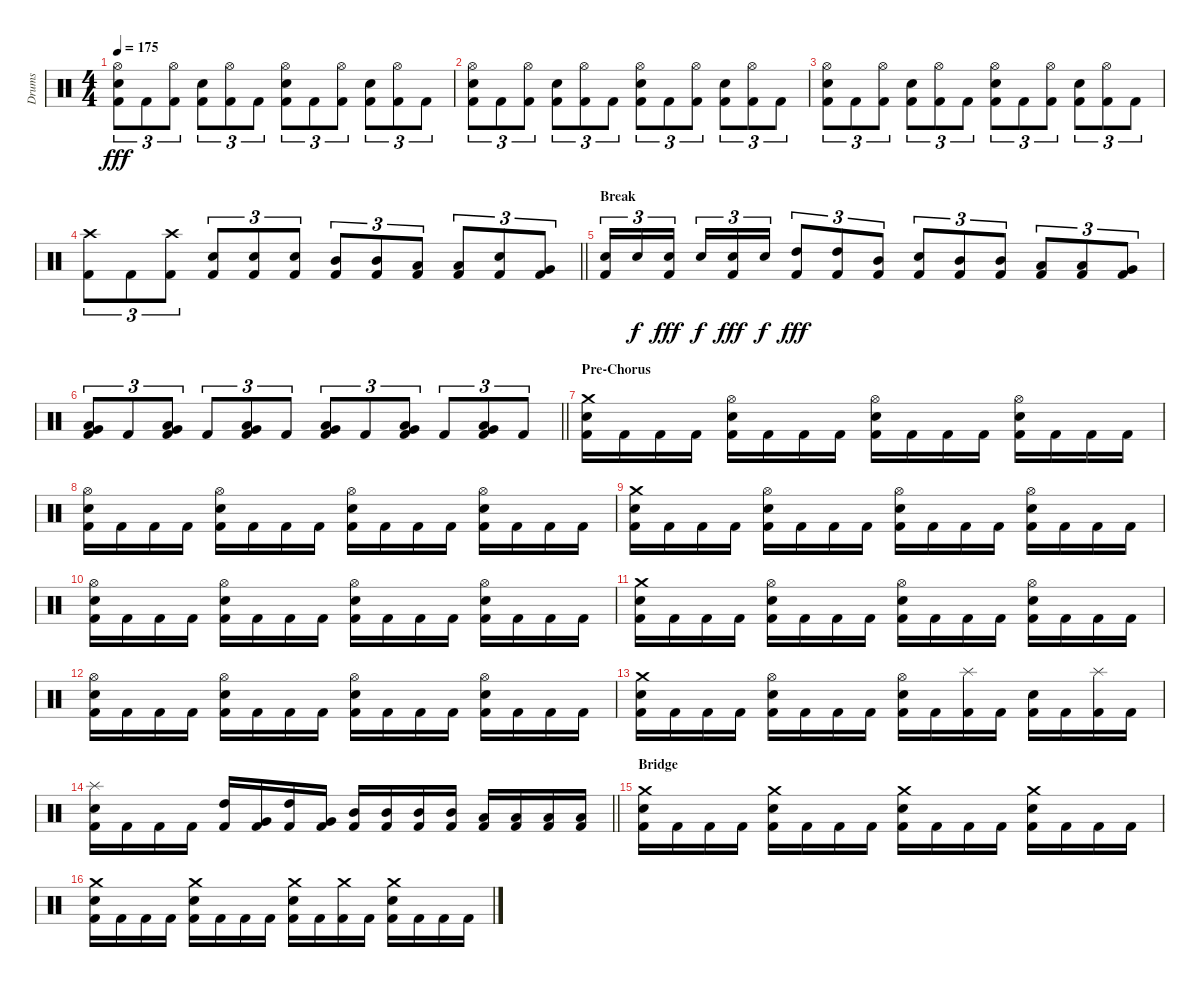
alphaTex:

\track ("Drums" "Drums") {instrument percussion}
\staff {score}
\articulation defaults
\ts (4 4)
\tempo 175
\clef neutral
\ks c
("Hi-Hat (open)" "Electric Snare (hit)" "Kick (hit) 2").8{tu (3 2) dy fff} "Kick (hit) 2".8{tu (3 2)} ("Hi-Hat (open)" "Kick (hit) 2").8{tu (3 2)} ("Electric Snare (hit)" "Kick (hit) 2").8{tu (3 2)} ("Hi-Hat (open)" "Kick (hit) 2").8{tu (3 2)} "Kick (hit) 2".8{tu (3 2)} ("Hi-Hat (open)" "Electric Snare (hit)" "Kick (hit) 2").8{tu (3 2)} "Kick (hit) 2".8{tu (3 2)} ("Hi-Hat (open)" "Kick (hit) 2").8{tu (3 2)} ("Electric Snare (hit)" "Kick (hit) 2").8{tu (3 2)} ("Hi-Hat (open)" "Kick (hit) 2").8{tu (3 2)} "Kick (hit) 2".8{tu (3 2)} |
("Hi-Hat (open)" "Electric Snare (hit)" "Kick (hit) 2").8{tu (3 2)} "Kick (hit) 2".8{tu (3 2)} ("Hi-Hat (open)" "Kick (hit) 2").8{tu (3 2)} ("Electric Snare (hit)" "Kick (hit) 2").8{tu (3 2)} ("Hi-Hat (open)" "Kick (hit) 2").8{tu (3 2)} "Kick (hit) 2".8{tu (3 2)} ("Hi-Hat (open)" "Electric Snare (hit)" "Kick (hit) 2").8{tu (3 2)} "Kick (hit) 2".8{tu (3 2)} ("Hi-Hat (open)" "Kick (hit) 2").8{tu (3 2)} ("Electric Snare (hit)" "Kick (hit) 2").8{tu (3 2)} ("Hi-Hat (open)" "Kick (hit) 2").8{tu (3 2)} "Kick (hit) 2".8{tu (3 2)} |
("Hi-Hat (open)" "Electric Snare (hit)" "Kick (hit) 2").8{tu (3 2)} "Kick (hit) 2".8{tu (3 2)} ("Hi-Hat (open)" "Kick (hit) 2").8{tu (3 2)} ("Electric Snare (hit)" "Kick (hit) 2").8{tu (3 2)} ("Hi-Hat (open)" "Kick (hit) 2").8{tu (3 2)} "Kick (hit) 2".8{tu (3 2)} ("Hi-Hat (open)" "Electric Snare (hit)" "Kick (hit) 2").8{tu (3 2)} "Kick (hit) 2".8{tu (3 2)} ("Hi-Hat (open)" "Kick (hit) 2").8{tu (3 2)} ("Electric Snare (hit)" "Kick (hit) 2").8{tu (3 2)} ("Hi-Hat (open)" "Kick (hit) 2").8{tu (3 2)} "Kick (hit) 2".8{tu (3 2)} |
\barLineRight lightlight
("Crash high (hit)" "Kick (hit) 2").8{tu (3 2)} "Kick (hit) 2".8{tu (3 2)} ("Crash high (hit)" "Kick (hit) 2").8{tu (3 2)} ("Electric Snare (hit)" "Kick (hit) 2").8{tu (3 2)} ("Electric Snare (hit)" "Kick (hit) 2").8{tu (3 2)} ("Electric Snare (hit)" "Kick (hit) 2").8{tu (3 2)} ("Mid Tom (hit)" "Kick (hit) 2").8{tu (3 2)} ("Mid Tom (hit)" "Kick (hit) 2").8{tu (3 2)} ("Low Tom (hit)" "Kick (hit) 2").8{tu (3 2)} ("Low Tom (hit)" "Kick (hit) 2").8{tu (3 2)} ("Electric Snare (hit)" "Kick (hit) 2").8{tu (3 2)} ("Very Low Tom (hit)" "Kick (hit) 2").8{tu (3 2)} |
\section ("" "Break")
("Electric Snare (hit)" "Kick (hit) 2").16{tu (3 2)} "Electric Snare (hit)".16{tu (3 2) dy f} ("Electric Snare (hit)" "Kick (hit) 2").16{tu (3 2) dy fff beam splitsecondary} "Electric Snare (hit)".16{tu (3 2) dy f} ("Electric Snare (hit)" "Kick (hit) 2").16{tu (3 2) dy fff} "Electric Snare (hit)".16{tu (3 2) dy f} ("High Tom (hit)" "Kick (hit) 2").8{tu (3 2) dy fff} ("High Tom (hit)" "Kick (hit) 2").8{tu (3 2)} ("Mid Tom (hit)" "Kick (hit) 2").8{tu (3 2)} ("Electric Snare (hit)" "Kick (hit) 2").8{tu (3 2)} ("Mid Tom (hit)" "Kick (hit) 2").8{tu (3 2)} ("Mid Tom (hit)" "Kick (hit) 2").8{tu (3 2)} ("Low Tom (hit)" "Kick (hit) 2").8{tu (3 2)} ("Low Tom (hit)" "Kick (hit) 2").8{tu (3 2)} ("Very Low Tom (hit)" "Kick (hit) 2").8{tu (3 2)} |
\barLineRight lightlight
("Very Low Tom (hit)" "Low Floor Tom (hit)" "Kick (hit) 2").8{tu (3 2)} "Kick (hit) 2".8{tu (3 2)} ("Very Low Tom (hit)" "Low Floor Tom (hit)" "Kick (hit) 2").8{tu (3 2)} "Kick (hit) 2".8{tu (3 2)} ("Very Low Tom (hit)" "Low Floor Tom (hit)" "Kick (hit) 2").8{tu (3 2)} "Kick (hit) 2".8{tu (3 2)} ("Very Low Tom (hit)" "Low Floor Tom (hit)" "Kick (hit) 2").8{tu (3 2)} "Kick (hit) 2".8{tu (3 2)} ("Very Low Tom (hit)" "Low Floor Tom (hit)" "Kick (hit) 2").8{tu (3 2)} "Kick (hit) 2".8{tu (3 2)} ("Very Low Tom (hit)" "Low Floor Tom (hit)" "Kick (hit) 2").8{tu (3 2)} "Kick (hit) 2".8{tu (3 2)} |
\section ("" "Pre-Chorus")
("Crash medium (hit)" "Electric Snare (hit)" "Kick (hit) 2").16 "Kick (hit) 2".16 "Kick (hit) 2".16 "Kick (hit) 2".16 ("Hi-Hat (open)" "Electric Snare (hit)" "Kick (hit) 2").16 "Kick (hit) 2".16 "Kick (hit) 2".16 "Kick (hit) 2".16 ("Hi-Hat (open)" "Electric Snare (hit)" "Kick (hit) 2").16 "Kick (hit) 2".16 "Kick (hit) 2".16 "Kick (hit) 2".16 ("Hi-Hat (open)" "Electric Snare (hit)" "Kick (hit) 2").16 "Kick (hit) 2".16 "Kick (hit) 2".16 "Kick (hit) 2".16 |
("Hi-Hat (open)" "Electric Snare (hit)" "Kick (hit) 2").16 "Kick (hit) 2".16 "Kick (hit) 2".16 "Kick (hit) 2".16 ("Hi-Hat (open)" "Electric Snare (hit)" "Kick (hit) 2").16 "Kick (hit) 2".16 "Kick (hit) 2".16 "Kick (hit) 2".16 ("Hi-Hat (open)" "Electric Snare (hit)" "Kick (hit) 2").16 "Kick (hit) 2".16 "Kick (hit) 2".16 "Kick (hit) 2".16 ("Hi-Hat (open)" "Electric Snare (hit)" "Kick (hit) 2").16 "Kick (hit) 2".16 "Kick (hit) 2".16 "Kick (hit) 2".16 |
("Crash medium (hit)" "Electric Snare (hit)" "Kick (hit) 2").16 "Kick (hit) 2".16 "Kick (hit) 2".16 "Kick (hit) 2".16 ("Hi-Hat (open)" "Electric Snare (hit)" "Kick (hit) 2").16 "Kick (hit) 2".16 "Kick (hit) 2".16 "Kick (hit) 2".16 ("Hi-Hat (open)" "Electric Snare (hit)" "Kick (hit) 2").16 "Kick (hit) 2".16 "Kick (hit) 2".16 "Kick (hit) 2".16 ("Hi-Hat (open)" "Electric Snare (hit)" "Kick (hit) 2").16 "Kick (hit) 2".16 "Kick (hit) 2".16 "Kick (hit) 2".16 |
("Hi-Hat (open)" "Electric Snare (hit)" "Kick (hit) 2").16 "Kick (hit) 2".16 "Kick (hit) 2".16 "Kick (hit) 2".16 ("Hi-Hat (open)" "Electric Snare (hit)" "Kick (hit) 2").16 "Kick (hit) 2".16 "Kick (hit) 2".16 "Kick (hit) 2".16 ("Hi-Hat (open)" "Electric Snare (hit)" "Kick (hit) 2").16 "Kick (hit) 2".16 "Kick (hit) 2".16 "Kick (hit) 2".16 ("Hi-Hat (open)" "Electric Snare (hit)" "Kick (hit) 2").16 "Kick (hit) 2".16 "Kick (hit) 2".16 "Kick (hit) 2".16 |
("Crash medium (hit)" "Electric Snare (hit)" "Kick (hit) 2").16 "Kick (hit) 2".16 "Kick (hit) 2".16 "Kick (hit) 2".16 ("Hi-Hat (open)" "Electric Snare (hit)" "Kick (hit) 2").16 "Kick (hit) 2".16 "Kick (hit) 2".16 "Kick (hit) 2".16 ("Hi-Hat (open)" "Electric Snare (hit)" "Kick (hit) 2").16 "Kick (hit) 2".16 "Kick (hit) 2".16 "Kick (hit) 2".16 ("Hi-Hat (open)" "Electric Snare (hit)" "Kick (hit) 2").16 "Kick (hit) 2".16 "Kick (hit) 2".16 "Kick (hit) 2".16 |
("Hi-Hat (open)" "Electric Snare (hit)" "Kick (hit) 2").16 "Kick (hit) 2".16 "Kick (hit) 2".16 "Kick (hit) 2".16 ("Hi-Hat (open)" "Electric Snare (hit)" "Kick (hit) 2").16 "Kick (hit) 2".16 "Kick (hit) 2".16 "Kick (hit) 2".16 ("Hi-Hat (open)" "Electric Snare (hit)" "Kick (hit) 2").16 "Kick (hit) 2".16 "Kick (hit) 2".16 "Kick (hit) 2".16 ("Hi-Hat (open)" "Electric Snare (hit)" "Kick (hit) 2").16 "Kick (hit) 2".16 "Kick (hit) 2".16 "Kick (hit) 2".16 |
("Crash medium (hit)" "Electric Snare (hit)" "Kick (hit) 2").16 "Kick (hit) 2".16 "Kick (hit) 2".16 "Kick (hit) 2".16 ("Hi-Hat (open)" "Electric Snare (hit)" "Kick (hit) 2").16 "Kick (hit) 2".16 "Kick (hit) 2".16 "Kick (hit) 2".16 ("Hi-Hat (open)" "Electric Snare (hit)" "Kick (hit) 2").16 "Kick (hit) 2".16 ("Splash (hit)" "Kick (hit) 2").16 "Kick (hit) 2".16 ("Electric Snare (hit)" "Kick (hit) 2").16 "Kick (hit) 2".16 ("Splash (hit)" "Kick (hit) 2").16 "Kick (hit) 2".16 |
\barLineRight lightlight
("Splash (hit)" "Electric Snare (hit)" "Kick (hit) 2").16 "Kick (hit) 2".16 "Kick (hit) 2".16 "Kick (hit) 2".16 ("High Tom (hit)" "Kick (hit) 2").16 ("Very Low Tom (hit)" "Kick (hit) 2").16 ("High Tom (hit)" "Kick (hit) 2").16 ("Very Low Tom (hit)" "Kick (hit) 2").16 ("Mid Tom (hit)" "Kick (hit) 2").16 ("Mid Tom (hit)" "Kick (hit) 2").16 ("Mid Tom (hit)" "Kick (hit) 2").16 ("Mid Tom (hit)" "Kick (hit) 2").16 ("Low Tom (hit)" "Kick (hit) 2").16 ("Low Tom (hit)" "Kick (hit) 2").16 ("Low Tom (hit)" "Kick (hit) 2").16 ("Low Tom (hit)" "Kick (hit) 2").16 |
\section ("" "Bridge")
("Crash medium (hit)" "Electric Snare (hit)" "Kick (hit) 2").16 "Kick (hit) 2".16 "Kick (hit) 2".16 "Kick (hit) 2".16 ("Crash medium (hit)" "Electric Snare (hit)" "Kick (hit) 2").16 "Kick (hit) 2".16 "Kick (hit) 2".16 "Kick (hit) 2".16 ("Crash medium (hit)" "Electric Snare (hit)" "Kick (hit) 2").16 "Kick (hit) 2".16 "Kick (hit) 2".16 "Kick (hit) 2".16 ("Crash medium (hit)" "Electric Snare (hit)" "Kick (hit) 2").16 "Kick (hit) 2".16 "Kick (hit) 2".16 "Kick (hit) 2".16 |
("Crash medium (hit)" "Electric Snare (hit)" "Kick (hit) 2").16 "Kick (hit) 2".16 "Kick (hit) 2".16 "Kick (hit) 2".16 ("Crash medium (hit)" "Electric Snare (hit)" "Kick (hit) 2").16 "Kick (hit) 2".16 "Kick (hit) 2".16 "Kick (hit) 2".16 ("Crash medium (hit)" "Electric Snare (hit)" "Kick (hit) 2").16 "Kick (hit) 2".16 ("Crash medium (hit)" "Kick (hit) 2").16 "Kick (hit) 2".16 ("Crash medium (hit)" "Electric Snare (hit)" "Kick (hit) 2").16 "Kick (hit) 2".16 "Kick (hit) 2".16 "Kick (hit) 2".16
